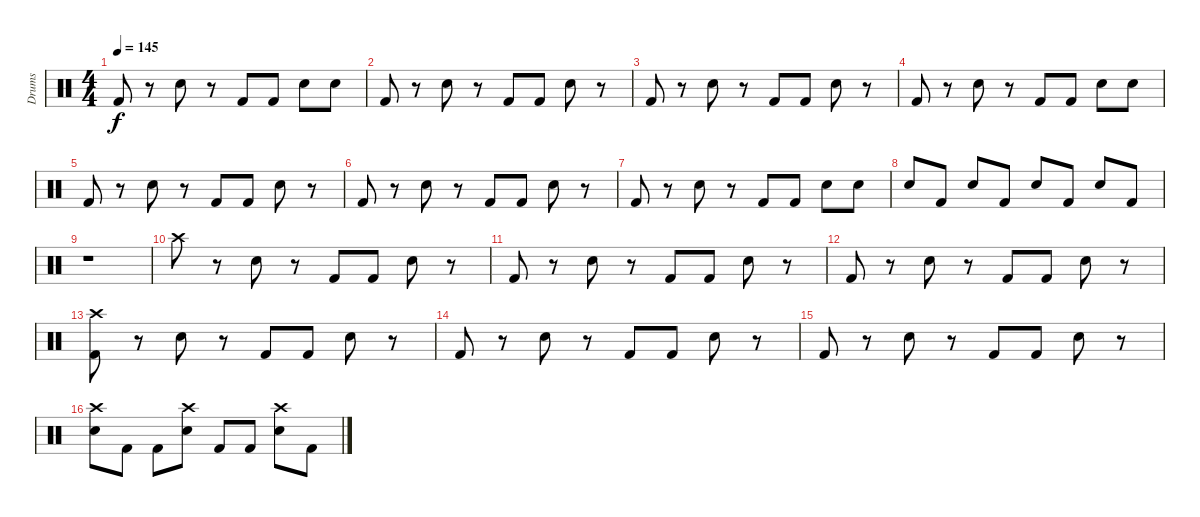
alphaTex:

\track ("Drums" "Drums") {instrument percussion}
\staff {score}
\articulation defaults
\ts (4 4)
\tempo 145
\clef neutral
\ks c "Kick (hit) 2".8{dy f}
r.8 "Electric Snare (hit)".8 r.8 "Kick (hit) 2".8 "Kick (hit) 2".8 "Electric Snare (hit)".8 "Electric Snare (hit)".8 |
"Kick (hit) 2".8 r.8 "Electric Snare (hit)".8 r.8 "Kick (hit) 2".8 "Kick (hit) 2".8 "Electric Snare (hit)".8 r.8 |
"Kick (hit) 2".8 r.8 "Electric Snare (hit)".8 r.8 "Kick (hit) 2".8 "Kick (hit) 2".8 "Electric Snare (hit)".8 r.8 |
"Kick (hit) 2".8 r.8 "Electric Snare (hit)".8 r.8 "Kick (hit) 2".8 "Kick (hit) 2".8 "Electric Snare (hit)".8 "Electric Snare (hit)".8 |
"Kick (hit) 2".8 r.8 "Electric Snare (hit)".8 r.8 "Kick (hit) 2".8 "Kick (hit) 2".8 "Electric Snare (hit)".8 r.8 |
"Kick (hit) 2".8 r.8 "Electric Snare (hit)".8 r.8 "Kick (hit) 2".8 "Kick (hit) 2".8 "Electric Snare (hit)".8 r.8 |
"Kick (hit) 2".8 r.8 "Electric Snare (hit)".8 r.8 "Kick (hit) 2".8 "Kick (hit) 2".8 "Electric Snare (hit)".8 "Electric Snare (hit)".8 |
"Electric Snare (hit)".8 "Kick (hit) 2".8 "Electric Snare (hit)".8 "Kick (hit) 2".8 "Electric Snare (hit)".8 "Kick (hit) 2".8 "Electric Snare (hit)".8 "Kick (hit) 2".8 |
r.1 |
"Crash high (hit)".8 r.8 "Electric Snare (hit)".8 r.8 "Kick (hit) 2".8 "Kick (hit) 2".8 "Electric Snare (hit)".8 r.8 |
"Kick (hit) 2".8 r.8 "Electric Snare (hit)".8 r.8 "Kick (hit) 2".8 "Kick (hit) 2".8 "Electric Snare (hit)".8 r.8 |
"Kick (hit) 2".8 r.8 "Electric Snare (hit)".8 r.8 "Kick (hit) 2".8 "Kick (hit) 2".8 "Electric Snare (hit)".8 r.8 |
("Crash high (hit)" "Kick (hit) 2").8 r.8 "Electric Snare (hit)".8 r.8 "Kick (hit) 2".8 "Kick (hit) 2".8 "Electric Snare (hit)".8 r.8 |
"Kick (hit) 2".8 r.8 "Electric Snare (hit)".8 r.8 "Kick (hit) 2".8 "Kick (hit) 2".8 "Electric Snare (hit)".8 r.8 |
"Kick (hit) 2".8 r.8 "Electric Snare (hit)".8 r.8 "Kick (hit) 2".8 "Kick (hit) 2".8 "Electric Snare (hit)".8 r.8 |
("Crash high (hit)" "Electric Snare (hit)").8 "Kick (hit) 2".8 "Kick (hit) 2".8 ("Crash high (hit)" "Electric Snare (hit)").8 "Kick (hit) 2".8 "Kick (hit) 2".8 ("Crash high (hit)" "Electric Snare (hit)").8 "Kick (hit) 2".8
